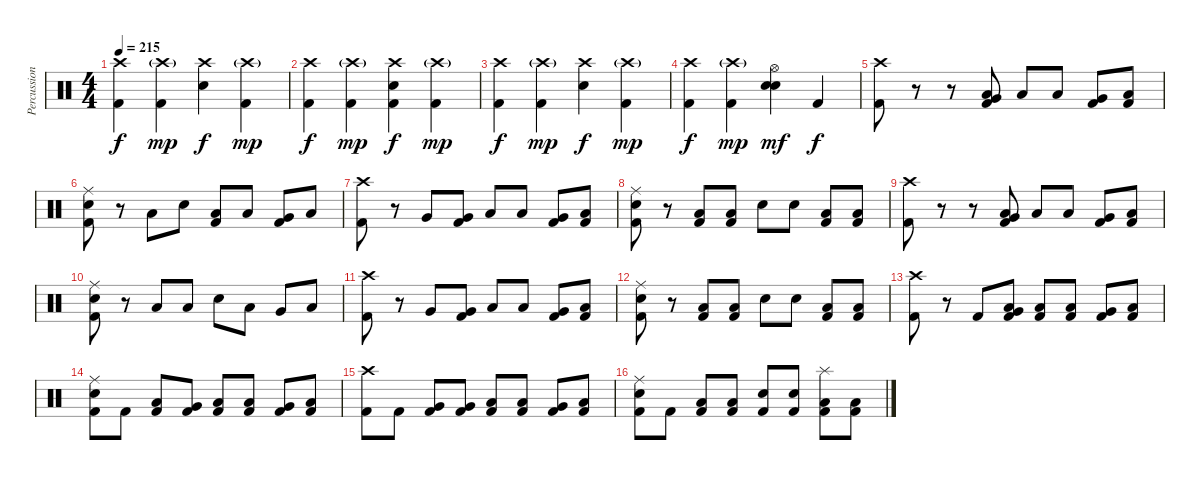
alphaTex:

\track ("Percussion" "Percussion") {instrument percussion}
\staff {score}
\articulation defaults
\ts (4 4)
\tempo 215
\clef neutral
\ks c
("Crash high (hit)" "Kick (hit) 2").4{dy f} ("Crash high (hit)"{g} "Kick (hit) 2").4{dy mp} ("Crash high (hit)" "Electric Snare (hit)").4{dy f} ("Crash high (hit)"{g} "Kick (hit) 2").4{dy mp} |
("Crash high (hit)" "Kick (hit) 2").4{dy f} ("Crash high (hit)"{g} "Kick (hit) 2").4{dy mp} ("Crash high (hit)" "Electric Snare (hit)" "Kick (hit) 2").4{dy f} ("Crash high (hit)"{g} "Kick (hit) 2").4{dy mp} |
("Crash high (hit)" "Kick (hit) 2").4{dy f} ("Crash high (hit)"{g} "Kick (hit) 2").4{dy mp} ("Crash high (hit)" "Electric Snare (hit)").4{dy f} ("Crash high (hit)"{g} "Kick (hit) 2").4{dy mp} |
("Crash high (hit)" "Kick (hit) 2").4{dy f} ("Crash high (hit)"{g} "Kick (hit) 2").4{dy mp} ("Hi-Hat (open)" "Electric Snare (hit)" "Electric Snare (hit)").4{bd 60 dy mf} "Kick (hit) 2".4{dy f} |
("Crash high (hit)" "Kick (hit) 2").8 r.8 r.8 ("Very Low Tom (hit)" "Low Tom (hit)" "Kick (hit) 2").8 "Low Tom (hit)".8 "Low Tom (hit)".8 ("Very Low Tom (hit)" "Kick (hit) 2").8 ("Low Tom (hit)" "Kick (hit) 2").8 |
("Ride (middle)" "Electric Snare (hit)" "Kick (hit) 2").8 r.8 "Low Tom (hit)".8 "Electric Snare (hit)".8 ("Low Tom (hit)" "Kick (hit) 2").8 "Low Tom (hit)".8 ("Very Low Tom (hit)" "Kick (hit) 2").8 "Low Tom (hit)".8 |
("Crash high (hit)" "Kick (hit) 2").8 r.8 "Very Low Tom (hit)".8 ("Very Low Tom (hit)" "Kick (hit) 2").8 "Low Tom (hit)".8 "Low Tom (hit)".8 ("Very Low Tom (hit)" "Kick (hit) 2").8 ("Low Tom (hit)" "Kick (hit) 2").8 |
("Ride (middle)" "Electric Snare (hit)" "Kick (hit) 2").8 r.8 ("Low Tom (hit)" "Kick (hit) 2").8 ("Low Tom (hit)" "Kick (hit) 2").8 "Electric Snare (hit)".8 "Electric Snare (hit)".8 ("Low Tom (hit)" "Kick (hit) 2").8 ("Low Tom (hit)" "Kick (hit) 2").8 |
("Crash high (hit)" "Kick (hit) 2").8 r.8 r.8 ("Very Low Tom (hit)" "Low Tom (hit)" "Kick (hit) 2").8 "Low Tom (hit)".8 "Low Tom (hit)".8 ("Very Low Tom (hit)" "Kick (hit) 2").8 ("Low Tom (hit)" "Kick (hit) 2").8 |
("Ride (middle)" "Electric Snare (hit)" "Kick (hit) 2").8 r.8 "Low Tom (hit)".8 "Low Tom (hit)".8 "Electric Snare (hit)".8 "Low Tom (hit)".8 "Very Low Tom (hit)".8 "Low Tom (hit)".8 |
("Crash high (hit)" "Kick (hit) 2").8 r.8 "Very Low Tom (hit)".8 ("Very Low Tom (hit)" "Kick (hit) 2").8 "Low Tom (hit)".8 "Low Tom (hit)".8 ("Very Low Tom (hit)" "Kick (hit) 2").8 ("Low Tom (hit)" "Kick (hit) 2").8 |
("Ride (middle)" "Electric Snare (hit)" "Kick (hit) 2").8 r.8 ("Low Tom (hit)" "Kick (hit) 2").8 ("Low Tom (hit)" "Kick (hit) 2").8 "Electric Snare (hit)".8 "Electric Snare (hit)".8 ("Low Tom (hit)" "Kick (hit) 2").8 ("Low Tom (hit)" "Kick (hit) 2").8 |
("Crash high (hit)" "Kick (hit) 2").8 r.8 "Kick (hit) 2".8 ("Very Low Tom (hit)" "Low Tom (hit)" "Kick (hit) 2").8 ("Low Tom (hit)" "Kick (hit) 2").8 ("Low Tom (hit)" "Kick (hit) 2").8 ("Very Low Tom (hit)" "Kick (hit) 2").8 ("Low Tom (hit)" "Kick (hit) 2").8 |
("Ride (middle)" "Electric Snare (hit)" "Kick (hit) 2").8 "Kick (hit) 2".8 ("Low Tom (hit)" "Kick (hit) 2").8 ("Very Low Tom (hit)" "Kick (hit) 2").8 ("Low Tom (hit)" "Kick (hit) 2").8 ("Low Tom (hit)" "Kick (hit) 2").8 ("Very Low Tom (hit)" "Kick (hit) 2").8 ("Low Tom (hit)" "Kick (hit) 2").8 |
("Crash high (hit)" "Kick (hit) 2").8 "Kick (hit) 2".8 ("Very Low Tom (hit)" "Kick (hit) 2").8 ("Very Low Tom (hit)" "Kick (hit) 2").8 ("Low Tom (hit)" "Kick (hit) 2").8 ("Low Tom (hit)" "Kick (hit) 2").8 ("Very Low Tom (hit)" "Kick (hit) 2").8 ("Low Tom (hit)" "Kick (hit) 2").8 |
("Ride (middle)" "Electric Snare (hit)" "Kick (hit) 2").8 "Kick (hit) 2".8 ("Low Tom (hit)" "Kick (hit) 2").8 ("Low Tom (hit)" "Kick (hit) 2").8 ("Electric Snare (hit)" "Kick (hit) 2").8 ("Electric Snare (hit)" "Kick (hit) 2").8 ("Splash (hit)" "Low Tom (hit)" "Kick (hit) 2").8 ("Low Tom (hit)" "Kick (hit) 2").8
